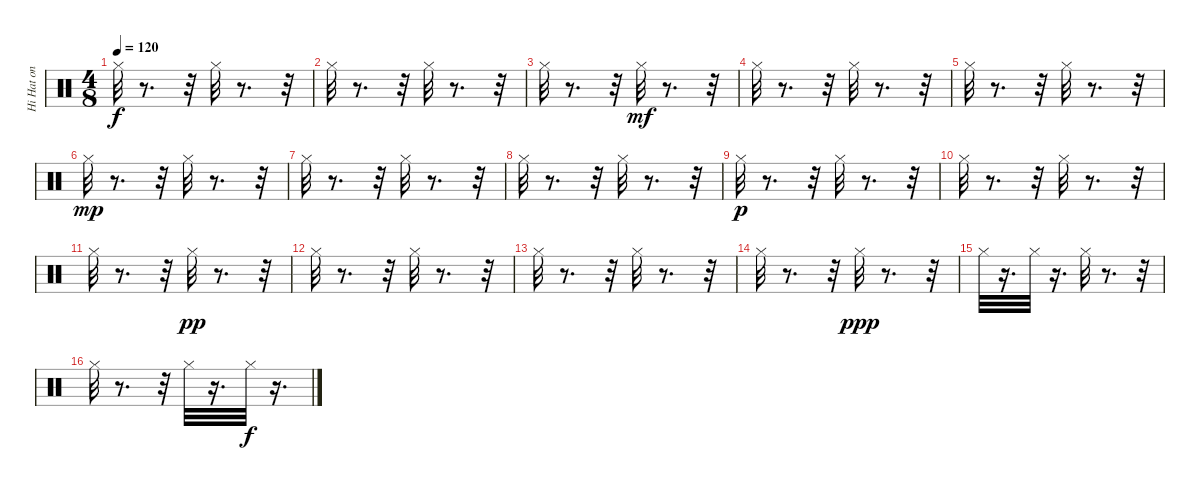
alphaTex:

\track ("Hi Hat on BD" "Hi Hat on ") {instrument percussion}
\staff {score}
\articulation defaults
\ts (4 8)
\tempo 120
\clef neutral
\ks c "Hi-Hat (closed)".32{dy f}
r.8{d} r.32 "Hi-Hat (closed)".32 r.8{d} r.32 |
"Hi-Hat (closed)".32 r.8{d} r.32 "Hi-Hat (closed)".32 r.8{d} r.32 |
"Hi-Hat (closed)".32 r.8{d} r.32 "Hi-Hat (closed)".32{dy mf} r.8{d} r.32 |
"Hi-Hat (closed)".32 r.8{d} r.32 "Hi-Hat (closed)".32 r.8{d} r.32 |
"Hi-Hat (closed)".32 r.8{d} r.32 "Hi-Hat (closed)".32 r.8{d} r.32 |
"Hi-Hat (closed)".32{dy mp} r.8{d} r.32 "Hi-Hat (closed)".32 r.8{d} r.32 |
"Hi-Hat (closed)".32 r.8{d} r.32 "Hi-Hat (closed)".32 r.8{d} r.32 |
"Hi-Hat (closed)".32 r.8{d} r.32 "Hi-Hat (closed)".32 r.8{d} r.32 |
"Hi-Hat (closed)".32{dy p} r.8{d} r.32 "Hi-Hat (closed)".32 r.8{d} r.32 |
"Hi-Hat (closed)".32 r.8{d} r.32 "Hi-Hat (closed)".32 r.8{d} r.32 |
"Hi-Hat (closed)".32 r.8{d} r.32 "Hi-Hat (closed)".32{dy pp} r.8{d} r.32 |
"Hi-Hat (closed)".32 r.8{d} r.32 "Hi-Hat (closed)".32 r.8{d} r.32 |
"Hi-Hat (closed)".32 r.8{d} r.32 "Hi-Hat (closed)".32 r.8{d} r.32 |
"Hi-Hat (closed)".32 r.8{d} r.32 "Hi-Hat (closed)".32{dy ppp} r.8{d} r.32 |
"Hi-Hat (closed)".32 r.16{d} "Hi-Hat (closed)".32 r.16{d} "Hi-Hat (closed)".32 r.8{d} r.32 |
"Hi-Hat (closed)".32 r.8{d} r.32 "Hi-Hat (closed)".32 r.16{d} "Hi-Hat (closed)".32{dy f} r.16{d}
